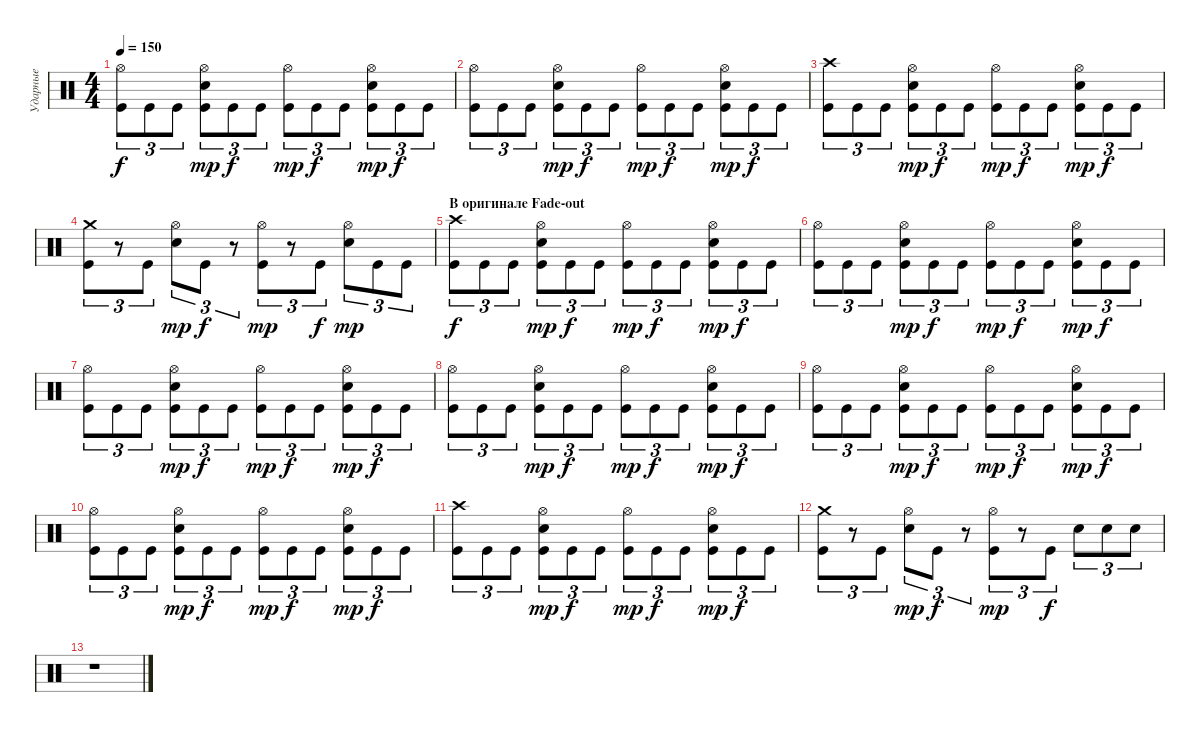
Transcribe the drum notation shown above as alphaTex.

\track ("Ударные" "Ударные") {instrument percussion}
\staff {score}
\articulation defaults
\ts (4 4)
\tempo 150
\clef neutral
\ks c
("Hi-Hat (open)" "Kick (hit)").8{tu (3 2) dy f} "Kick (hit)".8{tu (3 2)} "Kick (hit)".8{tu (3 2)} ("Hi-Hat (open)" "Snare (hit) 2" "Kick (hit)").8{tu (3 2) dy mp} "Kick (hit)".8{tu (3 2) dy f} "Kick (hit)".8{tu (3 2)} ("Hi-Hat (open)" "Kick (hit)").8{tu (3 2) dy mp} "Kick (hit)".8{tu (3 2) dy f} "Kick (hit)".8{tu (3 2)} ("Hi-Hat (open)" "Snare (hit) 2" "Kick (hit)").8{tu (3 2) dy mp} "Kick (hit)".8{tu (3 2) dy f} "Kick (hit)".8{tu (3 2)} |
("Hi-Hat (open)" "Kick (hit)").8{tu (3 2)} "Kick (hit)".8{tu (3 2)} "Kick (hit)".8{tu (3 2)} ("Hi-Hat (open)" "Snare (hit) 2" "Kick (hit)").8{tu (3 2) dy mp} "Kick (hit)".8{tu (3 2) dy f} "Kick (hit)".8{tu (3 2)} ("Hi-Hat (open)" "Kick (hit)").8{tu (3 2) dy mp} "Kick (hit)".8{tu (3 2) dy f} "Kick (hit)".8{tu (3 2)} ("Hi-Hat (open)" "Snare (hit) 2" "Kick (hit)").8{tu (3 2) dy mp} "Kick (hit)".8{tu (3 2) dy f} "Kick (hit)".8{tu (3 2)} |
("Crash high (hit)" "Kick (hit)").8{tu (3 2)} "Kick (hit)".8{tu (3 2)} "Kick (hit)".8{tu (3 2)} ("Hi-Hat (open)" "Snare (hit) 2" "Kick (hit)").8{tu (3 2) dy mp} "Kick (hit)".8{tu (3 2) dy f} "Kick (hit)".8{tu (3 2)} ("Hi-Hat (open)" "Kick (hit)").8{tu (3 2) dy mp} "Kick (hit)".8{tu (3 2) dy f} "Kick (hit)".8{tu (3 2)} ("Hi-Hat (open)" "Snare (hit) 2" "Kick (hit)").8{tu (3 2) dy mp} "Kick (hit)".8{tu (3 2) dy f} "Kick (hit)".8{tu (3 2)} |
("Crash medium (hit)" "Kick (hit)").8{tu (3 2)} r.8{tu (3 2)} "Kick (hit)".8{tu (3 2)} ("Hi-Hat (open)" "Snare (hit) 2").8{tu (3 2) dy mp} "Kick (hit)".8{tu (3 2) dy f} r.8{tu (3 2)} ("Hi-Hat (open)" "Kick (hit)").8{tu (3 2) dy mp} r.8{tu (3 2)} "Kick (hit)".8{tu (3 2) dy f} ("Hi-Hat (open)" "Snare (hit) 2").8{tu (3 2) dy mp} "Kick (hit)".8{tu (3 2)} "Kick (hit)".8{tu (3 2)} |
\section ("" "В оригинале Fade-out")
("Crash high (hit)" "Kick (hit)").8{tu (3 2) dy f} "Kick (hit)".8{tu (3 2)} "Kick (hit)".8{tu (3 2)} ("Hi-Hat (open)" "Snare (hit) 2" "Kick (hit)").8{tu (3 2) dy mp} "Kick (hit)".8{tu (3 2) dy f} "Kick (hit)".8{tu (3 2)} ("Hi-Hat (open)" "Kick (hit)").8{tu (3 2) dy mp} "Kick (hit)".8{tu (3 2) dy f} "Kick (hit)".8{tu (3 2)} ("Hi-Hat (open)" "Snare (hit) 2" "Kick (hit)").8{tu (3 2) dy mp} "Kick (hit)".8{tu (3 2) dy f} "Kick (hit)".8{tu (3 2)} |
("Hi-Hat (open)" "Kick (hit)").8{tu (3 2)} "Kick (hit)".8{tu (3 2)} "Kick (hit)".8{tu (3 2)} ("Hi-Hat (open)" "Snare (hit) 2" "Kick (hit)").8{tu (3 2) dy mp} "Kick (hit)".8{tu (3 2) dy f} "Kick (hit)".8{tu (3 2)} ("Hi-Hat (open)" "Kick (hit)").8{tu (3 2) dy mp} "Kick (hit)".8{tu (3 2) dy f} "Kick (hit)".8{tu (3 2)} ("Hi-Hat (open)" "Snare (hit) 2" "Kick (hit)").8{tu (3 2) dy mp} "Kick (hit)".8{tu (3 2) dy f} "Kick (hit)".8{tu (3 2)} |
("Hi-Hat (open)" "Kick (hit)").8{tu (3 2)} "Kick (hit)".8{tu (3 2)} "Kick (hit)".8{tu (3 2)} ("Hi-Hat (open)" "Snare (hit) 2" "Kick (hit)").8{tu (3 2) dy mp} "Kick (hit)".8{tu (3 2) dy f} "Kick (hit)".8{tu (3 2)} ("Hi-Hat (open)" "Kick (hit)").8{tu (3 2) dy mp} "Kick (hit)".8{tu (3 2) dy f} "Kick (hit)".8{tu (3 2)} ("Hi-Hat (open)" "Snare (hit) 2" "Kick (hit)").8{tu (3 2) dy mp} "Kick (hit)".8{tu (3 2) dy f} "Kick (hit)".8{tu (3 2)} |
("Hi-Hat (open)" "Kick (hit)").8{tu (3 2)} "Kick (hit)".8{tu (3 2)} "Kick (hit)".8{tu (3 2)} ("Hi-Hat (open)" "Snare (hit) 2" "Kick (hit)").8{tu (3 2) dy mp} "Kick (hit)".8{tu (3 2) dy f} "Kick (hit)".8{tu (3 2)} ("Hi-Hat (open)" "Kick (hit)").8{tu (3 2) dy mp} "Kick (hit)".8{tu (3 2) dy f} "Kick (hit)".8{tu (3 2)} ("Hi-Hat (open)" "Snare (hit) 2" "Kick (hit)").8{tu (3 2) dy mp} "Kick (hit)".8{tu (3 2) dy f} "Kick (hit)".8{tu (3 2)} |
("Hi-Hat (open)" "Kick (hit)").8{tu (3 2)} "Kick (hit)".8{tu (3 2)} "Kick (hit)".8{tu (3 2)} ("Hi-Hat (open)" "Snare (hit) 2" "Kick (hit)").8{tu (3 2) dy mp} "Kick (hit)".8{tu (3 2) dy f} "Kick (hit)".8{tu (3 2)} ("Hi-Hat (open)" "Kick (hit)").8{tu (3 2) dy mp} "Kick (hit)".8{tu (3 2) dy f} "Kick (hit)".8{tu (3 2)} ("Hi-Hat (open)" "Snare (hit) 2" "Kick (hit)").8{tu (3 2) dy mp} "Kick (hit)".8{tu (3 2) dy f} "Kick (hit)".8{tu (3 2)} |
("Hi-Hat (open)" "Kick (hit)").8{tu (3 2)} "Kick (hit)".8{tu (3 2)} "Kick (hit)".8{tu (3 2)} ("Hi-Hat (open)" "Snare (hit) 2" "Kick (hit)").8{tu (3 2) dy mp} "Kick (hit)".8{tu (3 2) dy f} "Kick (hit)".8{tu (3 2)} ("Hi-Hat (open)" "Kick (hit)").8{tu (3 2) dy mp} "Kick (hit)".8{tu (3 2) dy f} "Kick (hit)".8{tu (3 2)} ("Hi-Hat (open)" "Snare (hit) 2" "Kick (hit)").8{tu (3 2) dy mp} "Kick (hit)".8{tu (3 2) dy f} "Kick (hit)".8{tu (3 2)} |
("Crash high (hit)" "Kick (hit)").8{tu (3 2)} "Kick (hit)".8{tu (3 2)} "Kick (hit)".8{tu (3 2)} ("Hi-Hat (open)" "Snare (hit) 2" "Kick (hit)").8{tu (3 2) dy mp} "Kick (hit)".8{tu (3 2) dy f} "Kick (hit)".8{tu (3 2)} ("Hi-Hat (open)" "Kick (hit)").8{tu (3 2) dy mp} "Kick (hit)".8{tu (3 2) dy f} "Kick (hit)".8{tu (3 2)} ("Hi-Hat (open)" "Snare (hit) 2" "Kick (hit)").8{tu (3 2) dy mp} "Kick (hit)".8{tu (3 2) dy f} "Kick (hit)".8{tu (3 2)} |
("Crash medium (hit)" "Kick (hit)").8{tu (3 2)} r.8{tu (3 2)} "Kick (hit)".8{tu (3 2)} ("Hi-Hat (open)" "Snare (hit) 2").8{tu (3 2) dy mp} "Kick (hit)".8{tu (3 2) dy f} r.8{tu (3 2)} ("Hi-Hat (open)" "Kick (hit)").8{tu (3 2) dy mp} r.8{tu (3 2)} "Kick (hit)".8{tu (3 2) dy f} "Snare (hit) 2".8{tu (3 2)} "Snare (hit) 2".8{tu (3 2)} "Snare (hit) 2".8{tu (3 2)} |
r.1
